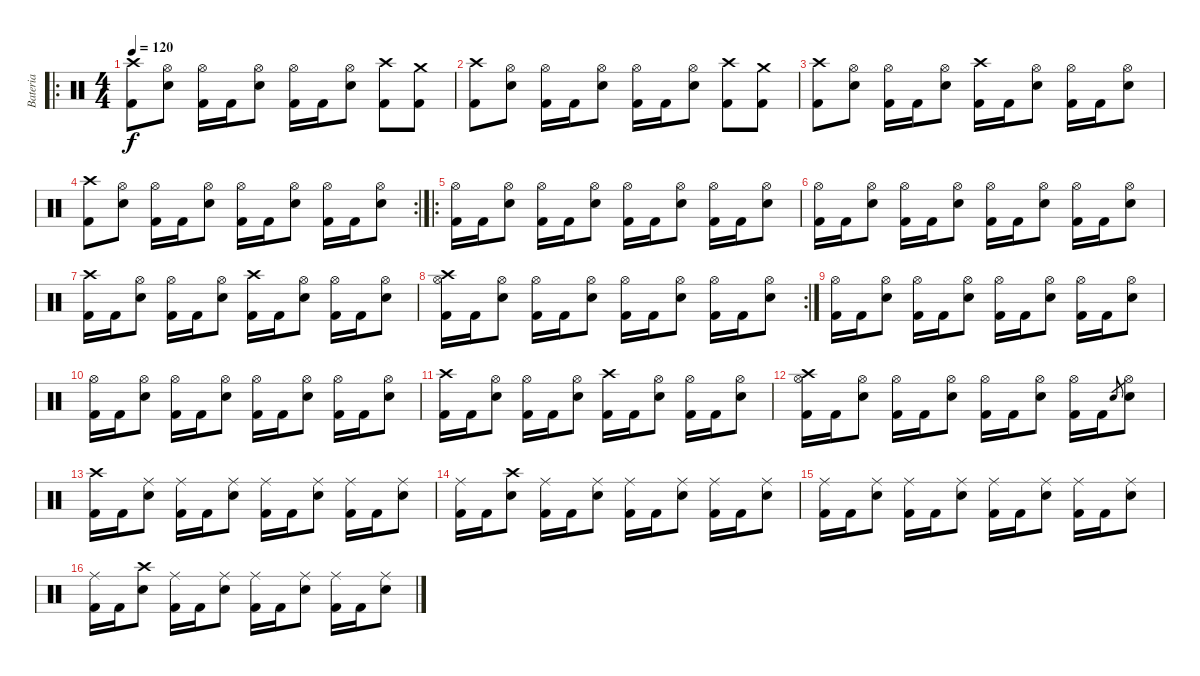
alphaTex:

\track ("Bateria" "Bateria") {instrument percussion}
\staff {score}
\articulation defaults
\ro
\ts (4 4)
\tempo 120
\clef neutral
\ks c
("Crash high (hit)" "Kick (hit) 2").8{dy f} ("Hi-Hat (open)" "Snare (hit) 2").8 ("Hi-Hat (open)" "Kick (hit) 2").16 "Kick (hit) 2".16 ("Hi-Hat (open)" "Snare (hit) 2").8 ("Hi-Hat (open)" "Kick (hit) 2").16 "Kick (hit) 2".16 ("Hi-Hat (open)" "Snare (hit) 2").8 ("Crash high (hit)" "Kick (hit) 2").8 ("Crash medium (hit)" "Kick (hit) 2").8 |
("Crash high (hit)" "Kick (hit) 2").8 ("Hi-Hat (open)" "Snare (hit) 2").8 ("Hi-Hat (open)" "Kick (hit) 2").16 "Kick (hit) 2".16 ("Hi-Hat (open)" "Snare (hit) 2").8 ("Hi-Hat (open)" "Kick (hit) 2").16 "Kick (hit) 2".16 ("Hi-Hat (open)" "Snare (hit) 2").8 ("Crash high (hit)" "Kick (hit) 2").8 ("Crash medium (hit)" "Kick (hit) 2").8 |
("Crash high (hit)" "Kick (hit) 2").8 ("Hi-Hat (open)" "Snare (hit) 2").8 ("Hi-Hat (open)" "Kick (hit) 2").16 "Kick (hit) 2".16 ("Hi-Hat (open)" "Snare (hit) 2").8 ("Crash high (hit)" "Kick (hit) 2").16 "Kick (hit) 2".16 ("Hi-Hat (open)" "Snare (hit) 2").8 ("Hi-Hat (open)" "Kick (hit) 2").16 "Kick (hit) 2".16 ("Hi-Hat (open)" "Snare (hit) 2").8 |
\rc 2
("Crash high (hit)" "Kick (hit) 2").8 ("Hi-Hat (open)" "Snare (hit) 2").8 ("Hi-Hat (open)" "Kick (hit) 2").16 "Kick (hit) 2".16 ("Hi-Hat (open)" "Snare (hit) 2").8 ("Hi-Hat (open)" "Kick (hit) 2").16 "Kick (hit) 2".16 ("Hi-Hat (open)" "Snare (hit) 2").8 ("Hi-Hat (open)" "Kick (hit) 2").16 "Kick (hit) 2".16 ("Hi-Hat (open)" "Snare (hit) 2").8 |
\ro
("Hi-Hat (open)" "Kick (hit) 2").16 "Kick (hit) 2".16 ("Hi-Hat (open)" "Snare (hit) 2").8 ("Hi-Hat (open)" "Kick (hit) 2").16 "Kick (hit) 2".16 ("Hi-Hat (open)" "Snare (hit) 2").8 ("Hi-Hat (open)" "Kick (hit) 2").16 "Kick (hit) 2".16 ("Hi-Hat (open)" "Snare (hit) 2").8 ("Hi-Hat (open)" "Kick (hit) 2").16 "Kick (hit) 2".16 ("Hi-Hat (open)" "Snare (hit) 2").8 |
("Hi-Hat (open)" "Kick (hit) 2").16 "Kick (hit) 2".16 ("Hi-Hat (open)" "Snare (hit) 2").8 ("Hi-Hat (open)" "Kick (hit) 2").16 "Kick (hit) 2".16 ("Hi-Hat (open)" "Snare (hit) 2").8 ("Hi-Hat (open)" "Kick (hit) 2").16 "Kick (hit) 2".16 ("Hi-Hat (open)" "Snare (hit) 2").8 ("Hi-Hat (open)" "Kick (hit) 2").16 "Kick (hit) 2".16 ("Hi-Hat (open)" "Snare (hit) 2").8 |
("Crash high (hit)" "Kick (hit) 2").16 "Kick (hit) 2".16 ("Hi-Hat (open)" "Snare (hit) 2").8 ("Hi-Hat (open)" "Kick (hit) 2").16 "Kick (hit) 2".16 ("Hi-Hat (open)" "Snare (hit) 2").8 ("Crash high (hit)" "Kick (hit) 2").16 "Kick (hit) 2".16 ("Hi-Hat (open)" "Snare (hit) 2").8 ("Hi-Hat (open)" "Kick (hit) 2").16 "Kick (hit) 2".16 ("Hi-Hat (open)" "Snare (hit) 2").8 |
\rc 2
("Crash high (hit)" "Hi-Hat (open)" "Kick (hit) 2").16 "Kick (hit) 2".16 ("Hi-Hat (open)" "Snare (hit) 2").8 ("Hi-Hat (open)" "Kick (hit) 2").16 "Kick (hit) 2".16 ("Hi-Hat (open)" "Snare (hit) 2").8 ("Hi-Hat (open)" "Kick (hit) 2").16 "Kick (hit) 2".16 ("Hi-Hat (open)" "Snare (hit) 2").8 ("Hi-Hat (open)" "Kick (hit) 2").16 "Kick (hit) 2".16 ("Hi-Hat (open)" "Snare (hit) 2").8 |
("Hi-Hat (open)" "Kick (hit) 2").16 "Kick (hit) 2".16 ("Hi-Hat (open)" "Snare (hit) 2").8 ("Hi-Hat (open)" "Kick (hit) 2").16 "Kick (hit) 2".16 ("Hi-Hat (open)" "Snare (hit) 2").8 ("Hi-Hat (open)" "Kick (hit) 2").16 "Kick (hit) 2".16 ("Hi-Hat (open)" "Snare (hit) 2").8 ("Hi-Hat (open)" "Kick (hit) 2").16 "Kick (hit) 2".16 ("Hi-Hat (open)" "Snare (hit) 2").8 |
("Hi-Hat (open)" "Kick (hit) 2").16 "Kick (hit) 2".16 ("Hi-Hat (open)" "Snare (hit) 2").8 ("Hi-Hat (open)" "Kick (hit) 2").16 "Kick (hit) 2".16 ("Hi-Hat (open)" "Snare (hit) 2").8 ("Hi-Hat (open)" "Kick (hit) 2").16 "Kick (hit) 2".16 ("Hi-Hat (open)" "Snare (hit) 2").8 ("Hi-Hat (open)" "Kick (hit) 2").16 "Kick (hit) 2".16 ("Hi-Hat (open)" "Snare (hit) 2").8 |
("Crash high (hit)" "Kick (hit) 2").16 "Kick (hit) 2".16 ("Hi-Hat (open)" "Snare (hit) 2").8 ("Hi-Hat (open)" "Kick (hit) 2").16 "Kick (hit) 2".16 ("Hi-Hat (open)" "Snare (hit) 2").8 ("Crash high (hit)" "Kick (hit) 2").16 "Kick (hit) 2".16 ("Hi-Hat (open)" "Snare (hit) 2").8 ("Hi-Hat (open)" "Kick (hit) 2").16 "Kick (hit) 2".16 ("Hi-Hat (open)" "Snare (hit) 2").8 |
("Crash high (hit)" "Hi-Hat (open)" "Kick (hit) 2").16 "Kick (hit) 2".16 ("Hi-Hat (open)" "Snare (hit) 2").8 ("Hi-Hat (open)" "Kick (hit) 2").16 "Kick (hit) 2".16 ("Hi-Hat (open)" "Snare (hit) 2").8 ("Hi-Hat (open)" "Kick (hit) 2").16 "Kick (hit) 2".16 ("Hi-Hat (open)" "Snare (hit) 2").8 ("Hi-Hat (open)" "Kick (hit) 2").16 "Kick (hit) 2".16 "Snare (hit) 2".8{gr} ("Hi-Hat (open)" "Snare (hit) 2").8 |
("Crash high (hit)" "Kick (hit) 2").16 "Kick (hit) 2".16 ("Ride (middle)" "Snare (hit) 2").8 ("Ride (middle)" "Kick (hit) 2").16 "Kick (hit) 2".16 ("Ride (middle)" "Snare (hit) 2").8 ("Ride (middle)" "Kick (hit) 2").16 "Kick (hit) 2".16 ("Ride (middle)" "Snare (hit) 2").8 ("Ride (middle)" "Kick (hit) 2").16 "Kick (hit) 2".16 ("Ride (middle)" "Snare (hit) 2").8 |
("Ride (middle)" "Kick (hit) 2").16 "Kick (hit) 2".16 ("Crash high (hit)" "Snare (hit) 2").8 ("Ride (middle)" "Kick (hit) 2").16 "Kick (hit) 2".16 ("Ride (middle)" "Snare (hit) 2").8 ("Ride (middle)" "Kick (hit) 2").16 "Kick (hit) 2".16 ("Ride (middle)" "Snare (hit) 2").8 ("Ride (middle)" "Kick (hit) 2").16 "Kick (hit) 2".16 ("Ride (middle)" "Snare (hit) 2").8 |
("Ride (middle)" "Kick (hit) 2").16 "Kick (hit) 2".16 ("Ride (middle)" "Snare (hit) 2").8 ("Ride (middle)" "Kick (hit) 2").16 "Kick (hit) 2".16 ("Ride (middle)" "Snare (hit) 2").8 ("Ride (middle)" "Kick (hit) 2").16 "Kick (hit) 2".16 ("Ride (middle)" "Snare (hit) 2").8 ("Ride (middle)" "Kick (hit) 2").16 "Kick (hit) 2".16 ("Ride (middle)" "Snare (hit) 2").8 |
("Ride (middle)" "Kick (hit) 2").16 "Kick (hit) 2".16 ("Crash high (hit)" "Snare (hit) 2").8 ("Ride (middle)" "Kick (hit) 2").16 "Kick (hit) 2".16 ("Ride (middle)" "Snare (hit) 2").8 ("Ride (middle)" "Kick (hit) 2").16 "Kick (hit) 2".16 ("Ride (middle)" "Snare (hit) 2").8 ("Ride (middle)" "Kick (hit) 2").16 "Kick (hit) 2".16 ("Ride (middle)" "Snare (hit) 2").8
